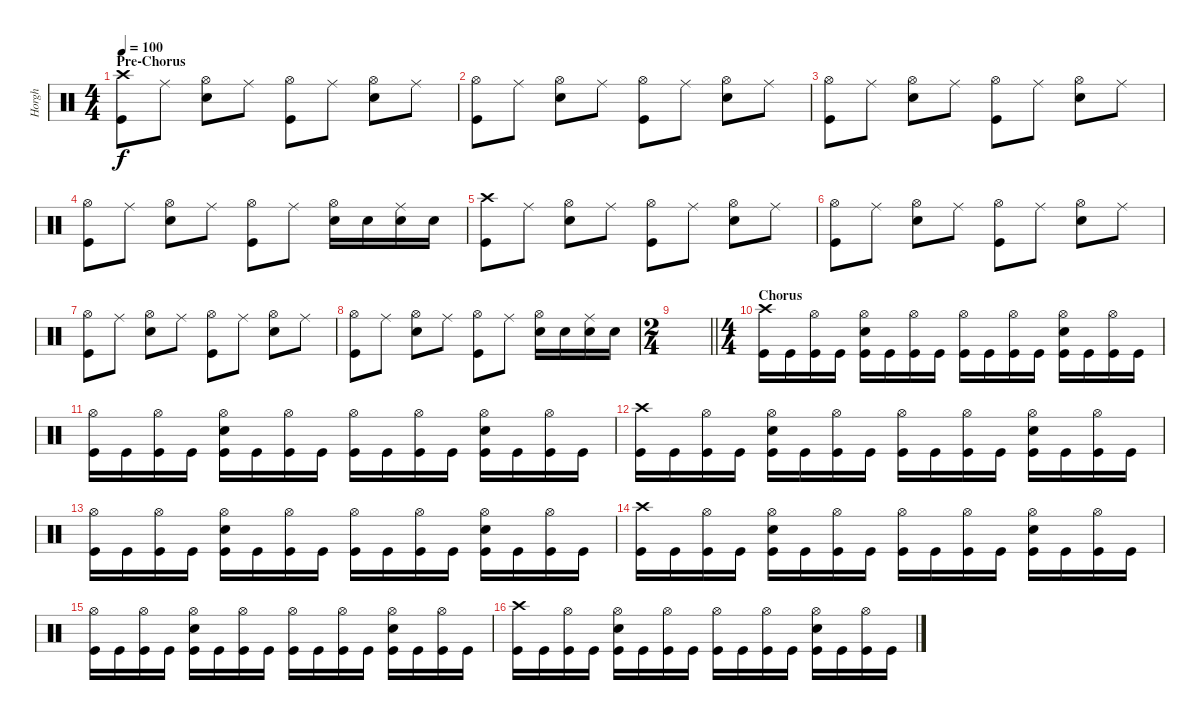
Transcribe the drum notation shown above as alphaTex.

\track ("Horgh" "Horgh") {instrument percussion}
\staff {score}
\articulation defaults
\ts (4 4)
\section ("" "Pre-Chorus")
\tempo 100
\clef neutral
\ks c
("Crash high (hit)" "Kick (hit)").8{dy f} "Ride (middle)".8 ("Hi-Hat (open)" "Electric Snare (hit)").8 "Ride (middle)".8 ("Hi-Hat (open)" "Kick (hit)").8 "Ride (middle)".8 ("Hi-Hat (open)" "Electric Snare (hit)").8 "Ride (middle)".8 |
("Hi-Hat (open)" "Kick (hit)").8 "Ride (middle)".8 ("Hi-Hat (open)" "Electric Snare (hit)").8 "Ride (middle)".8 ("Hi-Hat (open)" "Kick (hit)").8 "Ride (middle)".8 ("Hi-Hat (open)" "Electric Snare (hit)").8 "Ride (middle)".8 |
("Hi-Hat (open)" "Kick (hit)").8 "Ride (middle)".8 ("Hi-Hat (open)" "Electric Snare (hit)").8 "Ride (middle)".8 ("Hi-Hat (open)" "Kick (hit)").8 "Ride (middle)".8 ("Hi-Hat (open)" "Electric Snare (hit)").8 "Ride (middle)".8 |
("Hi-Hat (open)" "Kick (hit)").8 "Ride (middle)".8 ("Hi-Hat (open)" "Electric Snare (hit)").8 "Ride (middle)".8 ("Hi-Hat (open)" "Kick (hit)").8 "Ride (middle)".8 ("Hi-Hat (open)" "Electric Snare (hit)").16 "Electric Snare (hit)".16 ("Ride (middle)" "Electric Snare (hit)").16 "Electric Snare (hit)".16 |
("Crash high (hit)" "Kick (hit)").8 "Ride (middle)".8 ("Hi-Hat (open)" "Electric Snare (hit)").8 "Ride (middle)".8 ("Hi-Hat (open)" "Kick (hit)").8 "Ride (middle)".8 ("Hi-Hat (open)" "Electric Snare (hit)").8 "Ride (middle)".8 |
("Hi-Hat (open)" "Kick (hit)").8 "Ride (middle)".8 ("Hi-Hat (open)" "Electric Snare (hit)").8 "Ride (middle)".8 ("Hi-Hat (open)" "Kick (hit)").8 "Ride (middle)".8 ("Hi-Hat (open)" "Electric Snare (hit)").8 "Ride (middle)".8 |
("Hi-Hat (open)" "Kick (hit)").8 "Ride (middle)".8 ("Hi-Hat (open)" "Electric Snare (hit)").8 "Ride (middle)".8 ("Hi-Hat (open)" "Kick (hit)").8 "Ride (middle)".8 ("Hi-Hat (open)" "Electric Snare (hit)").8 "Ride (middle)".8 |
("Hi-Hat (open)" "Kick (hit)").8 "Ride (middle)".8 ("Hi-Hat (open)" "Electric Snare (hit)").8 "Ride (middle)".8 ("Hi-Hat (open)" "Kick (hit)").8 "Ride (middle)".8 ("Hi-Hat (open)" "Electric Snare (hit)").16 "Electric Snare (hit)".16 ("Ride (middle)" "Electric Snare (hit)").16 "Electric Snare (hit)".16 |
\ts (2 4)
\barLineRight lightlight
|
\ts (4 4)
\section ("" "Chorus")
("Crash high (hit)" "Kick (hit)").16 "Kick (hit)".16 ("Hi-Hat (open)" "Kick (hit)").16 "Kick (hit)".16 ("Hi-Hat (open)" "Electric Snare (hit)" "Kick (hit)").16 "Kick (hit)".16 ("Hi-Hat (open)" "Kick (hit)").16 "Kick (hit)".16 ("Hi-Hat (open)" "Kick (hit)").16 "Kick (hit)".16 ("Hi-Hat (open)" "Kick (hit)").16 "Kick (hit)".16 ("Hi-Hat (open)" "Electric Snare (hit)" "Kick (hit)").16 "Kick (hit)".16 ("Hi-Hat (open)" "Kick (hit)").16 "Kick (hit)".16 |
("Hi-Hat (open)" "Kick (hit)").16 "Kick (hit)".16 ("Hi-Hat (open)" "Kick (hit)").16 "Kick (hit)".16 ("Hi-Hat (open)" "Electric Snare (hit)" "Kick (hit)").16 "Kick (hit)".16 ("Hi-Hat (open)" "Kick (hit)").16 "Kick (hit)".16 ("Hi-Hat (open)" "Kick (hit)").16 "Kick (hit)".16 ("Hi-Hat (open)" "Kick (hit)").16 "Kick (hit)".16 ("Hi-Hat (open)" "Electric Snare (hit)" "Kick (hit)").16 "Kick (hit)".16 ("Hi-Hat (open)" "Kick (hit)").16 "Kick (hit)".16 |
("Crash high (hit)" "Kick (hit)").16 "Kick (hit)".16 ("Hi-Hat (open)" "Kick (hit)").16 "Kick (hit)".16 ("Hi-Hat (open)" "Electric Snare (hit)" "Kick (hit)").16 "Kick (hit)".16 ("Hi-Hat (open)" "Kick (hit)").16 "Kick (hit)".16 ("Hi-Hat (open)" "Kick (hit)").16 "Kick (hit)".16 ("Hi-Hat (open)" "Kick (hit)").16 "Kick (hit)".16 ("Hi-Hat (open)" "Electric Snare (hit)" "Kick (hit)").16 "Kick (hit)".16 ("Hi-Hat (open)" "Kick (hit)").16 "Kick (hit)".16 |
("Hi-Hat (open)" "Kick (hit)").16 "Kick (hit)".16 ("Hi-Hat (open)" "Kick (hit)").16 "Kick (hit)".16 ("Hi-Hat (open)" "Electric Snare (hit)" "Kick (hit)").16 "Kick (hit)".16 ("Hi-Hat (open)" "Kick (hit)").16 "Kick (hit)".16 ("Hi-Hat (open)" "Kick (hit)").16 "Kick (hit)".16 ("Hi-Hat (open)" "Kick (hit)").16 "Kick (hit)".16 ("Hi-Hat (open)" "Electric Snare (hit)" "Kick (hit)").16 "Kick (hit)".16 ("Hi-Hat (open)" "Kick (hit)").16 "Kick (hit)".16 |
("Crash high (hit)" "Kick (hit)").16 "Kick (hit)".16 ("Hi-Hat (open)" "Kick (hit)").16 "Kick (hit)".16 ("Hi-Hat (open)" "Electric Snare (hit)" "Kick (hit)").16 "Kick (hit)".16 ("Hi-Hat (open)" "Kick (hit)").16 "Kick (hit)".16 ("Hi-Hat (open)" "Kick (hit)").16 "Kick (hit)".16 ("Hi-Hat (open)" "Kick (hit)").16 "Kick (hit)".16 ("Hi-Hat (open)" "Electric Snare (hit)" "Kick (hit)").16 "Kick (hit)".16 ("Hi-Hat (open)" "Kick (hit)").16 "Kick (hit)".16 |
("Hi-Hat (open)" "Kick (hit)").16 "Kick (hit)".16 ("Hi-Hat (open)" "Kick (hit)").16 "Kick (hit)".16 ("Hi-Hat (open)" "Electric Snare (hit)" "Kick (hit)").16 "Kick (hit)".16 ("Hi-Hat (open)" "Kick (hit)").16 "Kick (hit)".16 ("Hi-Hat (open)" "Kick (hit)").16 "Kick (hit)".16 ("Hi-Hat (open)" "Kick (hit)").16 "Kick (hit)".16 ("Hi-Hat (open)" "Electric Snare (hit)" "Kick (hit)").16 "Kick (hit)".16 ("Hi-Hat (open)" "Kick (hit)").16 "Kick (hit)".16 |
("Crash high (hit)" "Kick (hit)").16 "Kick (hit)".16 ("Hi-Hat (open)" "Kick (hit)").16 "Kick (hit)".16 ("Hi-Hat (open)" "Electric Snare (hit)" "Kick (hit)").16 "Kick (hit)".16 ("Hi-Hat (open)" "Kick (hit)").16 "Kick (hit)".16 ("Hi-Hat (open)" "Kick (hit)").16 "Kick (hit)".16 ("Hi-Hat (open)" "Kick (hit)").16 "Kick (hit)".16 ("Hi-Hat (open)" "Electric Snare (hit)" "Kick (hit)").16 "Kick (hit)".16 ("Hi-Hat (open)" "Kick (hit)").16 "Kick (hit)".16
